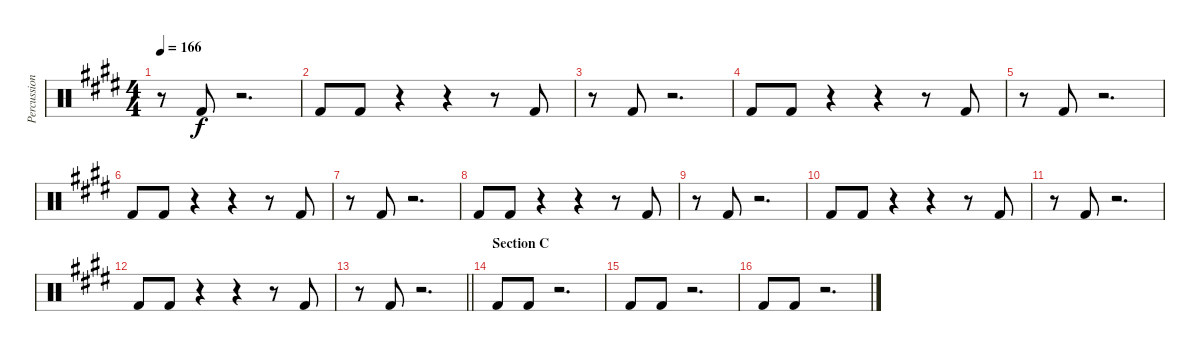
\track ("Percussion - Other Again" "Percussion") {instrument percussion}
\staff {score}
\articulation defaults
\ts (4 4)
\tempo 166
\clef neutral
\ks e
r.8{dy f} "Kick (hit) 2".8 r.2{d} |
"Kick (hit) 2".8 "Kick (hit) 2".8 r.4 r.4 r.8 "Kick (hit) 2".8 |
r.8 "Kick (hit) 2".8 r.2{d} |
"Kick (hit) 2".8 "Kick (hit) 2".8 r.4 r.4 r.8 "Kick (hit) 2".8 |
r.8 "Kick (hit) 2".8 r.2{d} |
"Kick (hit) 2".8 "Kick (hit) 2".8 r.4 r.4 r.8 "Kick (hit) 2".8 |
r.8 "Kick (hit) 2".8 r.2{d} |
"Kick (hit) 2".8 "Kick (hit) 2".8 r.4 r.4 r.8 "Kick (hit) 2".8 |
r.8 "Kick (hit) 2".8 r.2{d} |
"Kick (hit) 2".8 "Kick (hit) 2".8 r.4 r.4 r.8 "Kick (hit) 2".8 |
r.8 "Kick (hit) 2".8 r.2{d} |
"Kick (hit) 2".8 "Kick (hit) 2".8 r.4 r.4 r.8 "Kick (hit) 2".8 |
\barLineRight lightlight
r.8 "Kick (hit) 2".8 r.2{d} |
\section ("" "Section C")
"Kick (hit) 2".8 "Kick (hit) 2".8 r.2{d} |
"Kick (hit) 2".8 "Kick (hit) 2".8 r.2{d} |
"Kick (hit) 2".8 "Kick (hit) 2".8 r.2{d}
